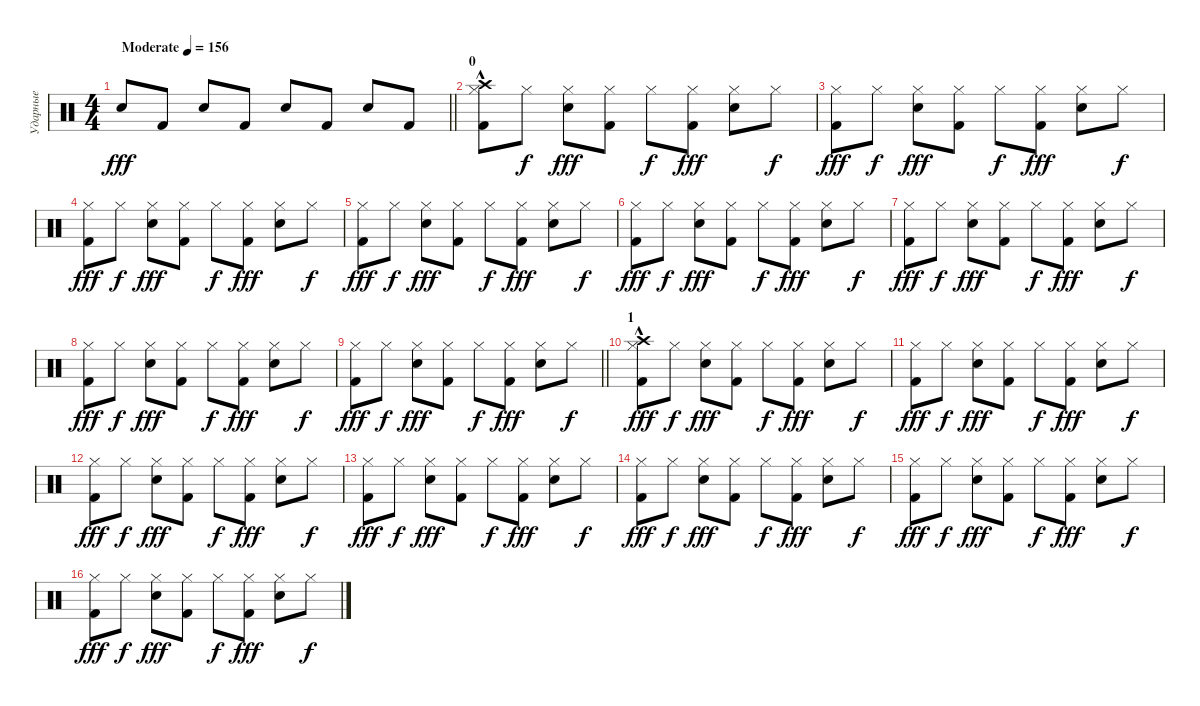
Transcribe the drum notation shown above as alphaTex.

\track ("Ударные" "Ударные") {instrument percussion}
\staff {score}
\articulation defaults
\ts (4 4)
\tempo (156 "Moderate")
\clef neutral
\barLineRight lightlight
\ks c "Snare (hit) 2".8{dy fff} "Kick (hit) 2".8 "Snare (hit) 2".8 "Kick (hit) 2".8 "Snare (hit) 2".8 "Kick (hit) 2".8 "Snare (hit) 2".8 "Kick (hit) 2".8
|
\section ("" "0")
("Hi-Hat (closed)" "Kick (hit) 2" "Crash high (hit)"{hac}).8 "Hi-Hat (closed)".8{dy f} ("Hi-Hat (closed)" "Snare (hit) 2").8{dy fff} ("Hi-Hat (closed)" "Kick (hit) 2").8 "Hi-Hat (closed)".8{dy f} ("Hi-Hat (closed)" "Kick (hit) 2").8{dy fff} ("Hi-Hat (closed)" "Snare (hit) 2").8 "Hi-Hat (closed)".8{dy f} |
("Hi-Hat (closed)" "Kick (hit) 2").8{dy fff} "Hi-Hat (closed)".8{dy f} ("Hi-Hat (closed)" "Snare (hit) 2").8{dy fff} ("Hi-Hat (closed)" "Kick (hit) 2").8 "Hi-Hat (closed)".8{dy f} ("Hi-Hat (closed)" "Kick (hit) 2").8{dy fff} ("Hi-Hat (closed)" "Snare (hit) 2").8 "Hi-Hat (closed)".8{dy f} |
("Hi-Hat (closed)" "Kick (hit) 2").8{dy fff} "Hi-Hat (closed)".8{dy f} ("Hi-Hat (closed)" "Snare (hit) 2").8{dy fff} ("Hi-Hat (closed)" "Kick (hit) 2").8 "Hi-Hat (closed)".8{dy f} ("Hi-Hat (closed)" "Kick (hit) 2").8{dy fff} ("Hi-Hat (closed)" "Snare (hit) 2").8 "Hi-Hat (closed)".8{dy f} |
("Hi-Hat (closed)" "Kick (hit) 2").8{dy fff} "Hi-Hat (closed)".8{dy f} ("Hi-Hat (closed)" "Snare (hit) 2").8{dy fff} ("Hi-Hat (closed)" "Kick (hit) 2").8 "Hi-Hat (closed)".8{dy f} ("Hi-Hat (closed)" "Kick (hit) 2").8{dy fff} ("Hi-Hat (closed)" "Snare (hit) 2").8 "Hi-Hat (closed)".8{dy f} |
("Hi-Hat (closed)" "Kick (hit) 2").8{dy fff} "Hi-Hat (closed)".8{dy f} ("Hi-Hat (closed)" "Snare (hit) 2").8{dy fff} ("Hi-Hat (closed)" "Kick (hit) 2").8 "Hi-Hat (closed)".8{dy f} ("Hi-Hat (closed)" "Kick (hit) 2").8{dy fff} ("Hi-Hat (closed)" "Snare (hit) 2").8 "Hi-Hat (closed)".8{dy f} |
("Hi-Hat (closed)" "Kick (hit) 2").8{dy fff} "Hi-Hat (closed)".8{dy f} ("Hi-Hat (closed)" "Snare (hit) 2").8{dy fff} ("Hi-Hat (closed)" "Kick (hit) 2").8 "Hi-Hat (closed)".8{dy f} ("Hi-Hat (closed)" "Kick (hit) 2").8{dy fff} ("Hi-Hat (closed)" "Snare (hit) 2").8 "Hi-Hat (closed)".8{dy f} |
("Hi-Hat (closed)" "Kick (hit) 2").8{dy fff} "Hi-Hat (closed)".8{dy f} ("Hi-Hat (closed)" "Snare (hit) 2").8{dy fff} ("Hi-Hat (closed)" "Kick (hit) 2").8 "Hi-Hat (closed)".8{dy f} ("Hi-Hat (closed)" "Kick (hit) 2").8{dy fff} ("Hi-Hat (closed)" "Snare (hit) 2").8 "Hi-Hat (closed)".8{dy f} |
\barLineRight lightlight
("Hi-Hat (closed)" "Kick (hit) 2").8{dy fff} "Hi-Hat (closed)".8{dy f} ("Hi-Hat (closed)" "Snare (hit) 2").8{dy fff} ("Hi-Hat (closed)" "Kick (hit) 2").8 "Hi-Hat (closed)".8{dy f} ("Hi-Hat (closed)" "Kick (hit) 2").8{dy fff} ("Hi-Hat (closed)" "Snare (hit) 2").8 "Hi-Hat (closed)".8{dy f} |
\section ("" "1")
("Hi-Hat (closed)" "Kick (hit) 2" "Crash high (hit)"{hac}).8{dy fff} "Hi-Hat (closed)".8{dy f} ("Hi-Hat (closed)" "Snare (hit) 2").8{dy fff} ("Hi-Hat (closed)" "Kick (hit) 2").8 "Hi-Hat (closed)".8{dy f} ("Hi-Hat (closed)" "Kick (hit) 2").8{dy fff} ("Hi-Hat (closed)" "Snare (hit) 2").8 "Hi-Hat (closed)".8{dy f} |
("Hi-Hat (closed)" "Kick (hit) 2").8{dy fff} "Hi-Hat (closed)".8{dy f} ("Hi-Hat (closed)" "Snare (hit) 2").8{dy fff} ("Hi-Hat (closed)" "Kick (hit) 2").8 "Hi-Hat (closed)".8{dy f} ("Hi-Hat (closed)" "Kick (hit) 2").8{dy fff} ("Hi-Hat (closed)" "Snare (hit) 2").8 "Hi-Hat (closed)".8{dy f} |
("Hi-Hat (closed)" "Kick (hit) 2").8{dy fff} "Hi-Hat (closed)".8{dy f} ("Hi-Hat (closed)" "Snare (hit) 2").8{dy fff} ("Hi-Hat (closed)" "Kick (hit) 2").8 "Hi-Hat (closed)".8{dy f} ("Hi-Hat (closed)" "Kick (hit) 2").8{dy fff} ("Hi-Hat (closed)" "Snare (hit) 2").8 "Hi-Hat (closed)".8{dy f} |
("Hi-Hat (closed)" "Kick (hit) 2").8{dy fff} "Hi-Hat (closed)".8{dy f} ("Hi-Hat (closed)" "Snare (hit) 2").8{dy fff} ("Hi-Hat (closed)" "Kick (hit) 2").8 "Hi-Hat (closed)".8{dy f} ("Hi-Hat (closed)" "Kick (hit) 2").8{dy fff} ("Hi-Hat (closed)" "Snare (hit) 2").8 "Hi-Hat (closed)".8{dy f} |
("Hi-Hat (closed)" "Kick (hit) 2").8{dy fff} "Hi-Hat (closed)".8{dy f} ("Hi-Hat (closed)" "Snare (hit) 2").8{dy fff} ("Hi-Hat (closed)" "Kick (hit) 2").8 "Hi-Hat (closed)".8{dy f} ("Hi-Hat (closed)" "Kick (hit) 2").8{dy fff} ("Hi-Hat (closed)" "Snare (hit) 2").8 "Hi-Hat (closed)".8{dy f} |
("Hi-Hat (closed)" "Kick (hit) 2").8{dy fff} "Hi-Hat (closed)".8{dy f} ("Hi-Hat (closed)" "Snare (hit) 2").8{dy fff} ("Hi-Hat (closed)" "Kick (hit) 2").8 "Hi-Hat (closed)".8{dy f} ("Hi-Hat (closed)" "Kick (hit) 2").8{dy fff} ("Hi-Hat (closed)" "Snare (hit) 2").8 "Hi-Hat (closed)".8{dy f} |
("Hi-Hat (closed)" "Kick (hit) 2").8{dy fff} "Hi-Hat (closed)".8{dy f} ("Hi-Hat (closed)" "Snare (hit) 2").8{dy fff} ("Hi-Hat (closed)" "Kick (hit) 2").8 "Hi-Hat (closed)".8{dy f} ("Hi-Hat (closed)" "Kick (hit) 2").8{dy fff} ("Hi-Hat (closed)" "Snare (hit) 2").8 "Hi-Hat (closed)".8{dy f}
